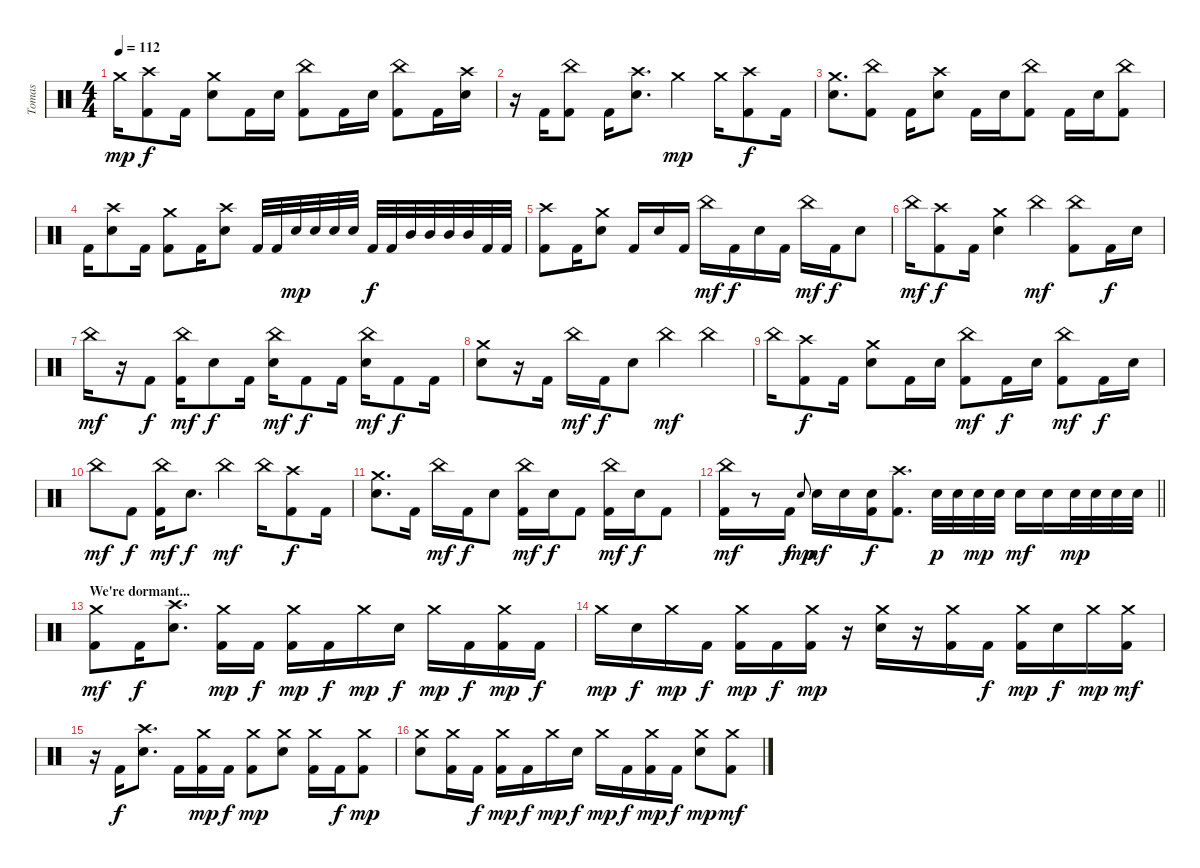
\track ("Tomas" "Tomas") {instrument percussion}
\staff {score}
\articulation defaults
\ts (4 4)
\tempo 112
\clef neutral
\ks c "Crash medium (hit)".16{dy mp}
("Crash high (hit)" "Kick (hit) 2").8{dy f} "Kick (hit) 2".16 ("Crash medium (hit)" "Electric Snare (hit)").8 "Kick (hit) 2".16 "Electric Snare (hit)".16 ("China (hit)" "Kick (hit) 2").8 "Kick (hit) 2".16 "Electric Snare (hit)".16 ("China (hit)" "Kick (hit) 2").8 "Kick (hit) 2".16 ("Crash high (hit)" "Electric Snare (hit)").16 |
r.16 "Kick (hit) 2".16 ("China (hit)" "Kick (hit) 2").8 "Kick (hit) 2".16 ("Crash high (hit)" "Electric Snare (hit)").8{d} "Crash medium (hit)".4{dy mp} "Crash medium (hit)".16 ("Crash high (hit)" "Kick (hit) 2").8{dy f} "Kick (hit) 2".16 |
("Crash medium (hit)" "Electric Snare (hit)").8{d} ("China (hit)" "Kick (hit) 2").8 "Kick (hit) 2".16 ("Crash high (hit)" "Electric Snare (hit)").8 "Kick (hit) 2".16 "Electric Snare (hit)".16 ("China (hit)" "Kick (hit) 2").8 "Kick (hit) 2".16 "Electric Snare (hit)".16 ("China (hit)" "Kick (hit) 2").8 |
"Kick (hit) 2".16 ("Crash high (hit)" "Electric Snare (hit)").8 "Kick (hit) 2".16 ("Crash medium (hit)" "Kick (hit) 2").8 "Kick (hit) 2".16 ("Crash high (hit)" "Electric Snare (hit)").8 "Kick (hit) 2".32 "Kick (hit) 2".32 "Electric Snare (hit)".32{dy mp} "Electric Snare (hit)".32 "Electric Snare (hit)".32 "Electric Snare (hit)".32 "Kick (hit) 2".32{dy f} "Kick (hit) 2".32 "Mid Tom (hit)".32 "Mid Tom (hit)".32 "Mid Tom (hit)".32 "Mid Tom (hit)".32 "Kick (hit) 2".32 "Kick (hit) 2".32 |
("Crash high (hit)" "Kick (hit) 2").8 "Kick (hit) 2".16 ("Crash medium (hit)" "Electric Snare (hit)").8 "Kick (hit) 2".16 "Electric Snare (hit)".16 "Kick (hit) 2".16 "China (hit)".16{dy mf} "Kick (hit) 2".16{dy f} "Electric Snare (hit)".16 "Kick (hit) 2".16 "China (hit)".16{dy mf} "Kick (hit) 2".16{dy f} "Electric Snare (hit)".8 |
"China (hit)".16{dy mf} ("Crash high (hit)" "Kick (hit) 2").8{dy f} "Kick (hit) 2".16 ("Crash medium (hit)" "Electric Snare (hit)").4 "China (hit)".4{dy mf} ("China (hit)" "Kick (hit) 2").8 "Kick (hit) 2".16{dy f} "Electric Snare (hit)".16 |
"China (hit)".16{dy mf} r.16 "Kick (hit) 2".8{dy f} ("China (hit)" "Kick (hit) 2").16{dy mf} "Electric Snare (hit)".8{dy f} "Kick (hit) 2".16 ("China (hit)" "Electric Snare (hit)").16{dy mf} "Kick (hit) 2".8{dy f} "Kick (hit) 2".16 ("China (hit)" "Electric Snare (hit)").16{dy mf} "Kick (hit) 2".8{dy f} "Kick (hit) 2".16 |
("Crash medium (hit)" "Electric Snare (hit)").8 r.16 "Kick (hit) 2".16 "China (hit)".16{dy mf} "Kick (hit) 2".16{dy f} "Electric Snare (hit)".8 "China (hit)".4{dy mf} "China (hit)".4 |
"China (hit)".16 ("Crash high (hit)" "Kick (hit) 2").8{dy f} "Kick (hit) 2".16 ("Crash medium (hit)" "Electric Snare (hit)").8 "Kick (hit) 2".16 "Electric Snare (hit)".16 ("China (hit)" "Kick (hit) 2").8{dy mf} "Kick (hit) 2".16{dy f} "Electric Snare (hit)".16 ("China (hit)" "Kick (hit) 2").8{dy mf} "Kick (hit) 2".16{dy f} "Electric Snare (hit)".16 |
"China (hit)".8{dy mf} "Kick (hit) 2".8{dy f} ("China (hit)" "Kick (hit) 2").16{dy mf} "Electric Snare (hit)".8{d dy f} "China (hit)".4{dy mf} "China (hit)".16 ("Crash high (hit)" "Kick (hit) 2").8{dy f} "Kick (hit) 2".16 |
("Crash medium (hit)" "Electric Snare (hit)").8{d} "Kick (hit) 2".16 "China (hit)".16{dy mf} "Kick (hit) 2".16{dy f} "Electric Snare (hit)".8 ("China (hit)" "Kick (hit) 2").16{dy mf} "Electric Snare (hit)".16{dy f} "Kick (hit) 2".8 ("China (hit)" "Kick (hit) 2").16{dy mf} "Electric Snare (hit)".16{dy f} "Kick (hit) 2".8 |
\barLineRight lightlight
("China (hit)" "Kick (hit) 2").16{dy mf} r.8 "Kick (hit) 2".16{dy f} "Electric Snare (hit)".8{gr onbeat dy mp} "Electric Snare (hit)".16{dy mf} "Electric Snare (hit)".16 ("Electric Snare (hit)" "Kick (hit) 2").16{dy f} ("Crash high (hit)" "Kick (hit) 2").8{d} "Electric Snare (hit)".32{dy p} "Electric Snare (hit)".32 "Electric Snare (hit)".32{dy mp} "Electric Snare (hit)".32 "Electric Snare (hit)".16{dy mf} "Electric Snare (hit)".16 "Electric Snare (hit)".32{dy mp} "Electric Snare (hit)".32 "Electric Snare (hit)".32 "Electric Snare (hit)".32 |
\section ("" "We're dormant...")
("Crash medium (hit)" "Kick (hit) 2").8{dy mf} "Kick (hit) 2".16{dy f} ("Crash high (hit)" "Electric Snare (hit)").8{d} ("Crash medium (hit)" "Kick (hit) 2").16{dy mp} "Kick (hit) 2".16{dy f} ("Crash medium (hit)" "Kick (hit) 2").16{dy mp} "Kick (hit) 2".16{dy f} "Crash medium (hit)".16{dy mp} "Electric Snare (hit)".16{dy f} "Crash medium (hit)".16{dy mp} "Kick (hit) 2".16{dy f} ("Crash medium (hit)" "Kick (hit) 2").16{dy mp} "Kick (hit) 2".16{dy f} |
"Crash medium (hit)".16{dy mp} "Electric Snare (hit)".16{dy f} "Crash medium (hit)".16{dy mp} "Kick (hit) 2".16{dy f} ("Crash medium (hit)" "Kick (hit) 2").16{dy mp} "Kick (hit) 2".16{dy f} ("Crash medium (hit)" "Kick (hit) 2").16{dy mp} r.16 ("Crash medium (hit)" "Electric Snare (hit)").16 r.16 ("Crash medium (hit)" "Kick (hit) 2").16 "Kick (hit) 2".16{dy f} ("Crash medium (hit)" "Kick (hit) 2").16{dy mp} "Electric Snare (hit)".16{dy f} "Crash medium (hit)".16{dy mp} ("Crash medium (hit)" "Kick (hit) 2").16{dy mf} |
r.16 "Kick (hit) 2".16{dy f} ("Crash high (hit)" "Electric Snare (hit)").8{d} "Kick (hit) 2".16 ("Crash medium (hit)" "Kick (hit) 2").16{dy mp} "Kick (hit) 2".16{dy f} ("Crash medium (hit)" "Kick (hit) 2").8{dy mp} ("Crash medium (hit)" "Electric Snare (hit)").8 ("Crash medium (hit)" "Kick (hit) 2").16 "Kick (hit) 2".16{dy f} ("Crash medium (hit)" "Kick (hit) 2").8{dy mp} |
("Crash medium (hit)" "Electric Snare (hit)").8 ("Crash medium (hit)" "Kick (hit) 2").16 "Kick (hit) 2".16{dy f} ("Crash medium (hit)" "Kick (hit) 2").16{dy mp} "Kick (hit) 2".16{dy f} "Crash medium (hit)".16{dy mp} "Electric Snare (hit)".16{dy f} "Crash medium (hit)".16{dy mp} "Kick (hit) 2".16{dy f} ("Crash medium (hit)" "Kick (hit) 2").16{dy mp} "Kick (hit) 2".16{dy f} ("Crash medium (hit)" "Electric Snare (hit)").8{dy mp} ("Crash medium (hit)" "Kick (hit) 2").8{dy mf}
